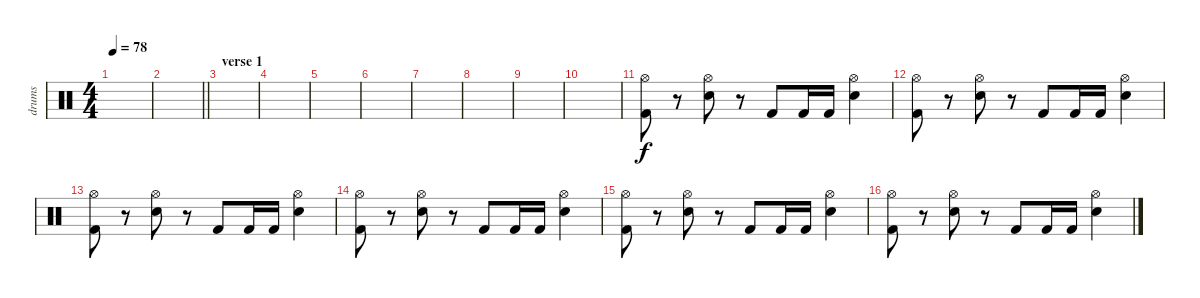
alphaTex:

\track ("drums" "drums") {instrument percussion}
\staff {score}
\articulation defaults
\ts (4 4)
\tempo 78
\clef neutral
\ks c
|
\barLineRight lightlight
|
\section ("" "verse 1")
|
|
|
|
|
|
|
|
("Kick (hit) 2" "Hi-Hat (open)").8 r.8 ("Electric Snare (hit)" "Hi-Hat (open)").8 r.8 "Kick (hit) 2".8 "Kick (hit) 2".16 "Kick (hit) 2".16 ("Electric Snare (hit)" "Hi-Hat (open)").4 |
("Kick (hit) 2" "Hi-Hat (open)").8 r.8 ("Electric Snare (hit)" "Hi-Hat (open)").8 r.8 "Kick (hit) 2".8 "Kick (hit) 2".16 "Kick (hit) 2".16 ("Electric Snare (hit)" "Hi-Hat (open)").4 |
("Kick (hit) 2" "Hi-Hat (open)").8 r.8 ("Electric Snare (hit)" "Hi-Hat (open)").8 r.8 "Kick (hit) 2".8 "Kick (hit) 2".16 "Kick (hit) 2".16 ("Electric Snare (hit)" "Hi-Hat (open)").4 |
("Kick (hit) 2" "Hi-Hat (open)").8 r.8 ("Electric Snare (hit)" "Hi-Hat (open)").8 r.8 "Kick (hit) 2".8 "Kick (hit) 2".16 "Kick (hit) 2".16 ("Electric Snare (hit)" "Hi-Hat (open)").4 |
("Kick (hit) 2" "Hi-Hat (open)").8 r.8 ("Electric Snare (hit)" "Hi-Hat (open)").8 r.8 "Kick (hit) 2".8 "Kick (hit) 2".16 "Kick (hit) 2".16 ("Electric Snare (hit)" "Hi-Hat (open)").4 |
("Kick (hit) 2" "Hi-Hat (open)").8 r.8 ("Electric Snare (hit)" "Hi-Hat (open)").8 r.8 "Kick (hit) 2".8 "Kick (hit) 2".16 "Kick (hit) 2".16 ("Electric Snare (hit)" "Hi-Hat (open)").4
